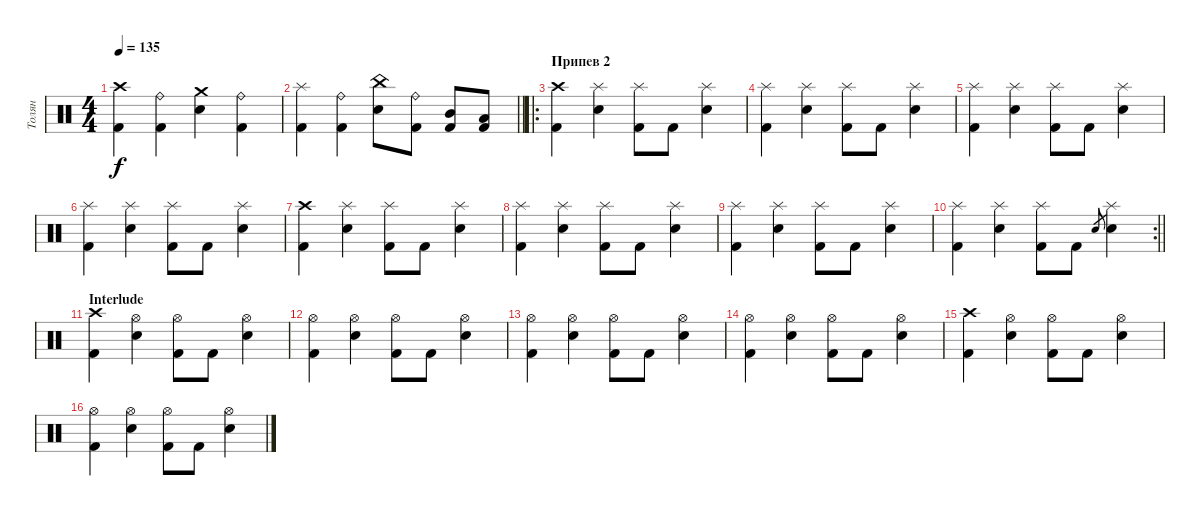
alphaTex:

\track ("Толян" "Толян") {instrument percussion}
\staff {score}
\articulation defaults
\ts (4 4)
\tempo 135
\clef neutral
\ks c
("Crash high (hit)" "Kick (hit) 2").4{dy f} ("Ride (bell)" "Kick (hit) 2").4 ("Crash medium (hit)" "Electric Snare (hit)").4 ("Ride (bell)" "Kick (hit) 2").4 |
\barLineRight lightlight
("Splash (hit)" "Kick (hit) 2").4 ("Ride (bell)" "Kick (hit) 2").4 ("China (hit)" "Electric Snare (hit)").8 ("Ride (bell)" "Kick (hit) 2").8 ("Mid Tom (hit)" "Kick (hit) 2").8 ("Low Tom (hit)" "Kick (hit) 2").8 |
\ro
\section ("" "Припев 2")
("Crash high (hit)" "Kick (hit) 2").4 ("Splash (hit)" "Electric Snare (hit)").4 ("Splash (hit)" "Kick (hit) 2").8 "Kick (hit) 2".8 ("Splash (hit)" "Electric Snare (hit)").4 |
("Splash (hit)" "Kick (hit) 2").4 ("Splash (hit)" "Electric Snare (hit)").4 ("Splash (hit)" "Kick (hit) 2").8 "Kick (hit) 2".8 ("Splash (hit)" "Electric Snare (hit)").4 |
("Splash (hit)" "Kick (hit) 2").4 ("Splash (hit)" "Electric Snare (hit)").4 ("Splash (hit)" "Kick (hit) 2").8 "Kick (hit) 2".8 ("Splash (hit)" "Electric Snare (hit)").4 |
("Splash (hit)" "Kick (hit) 2").4 ("Splash (hit)" "Electric Snare (hit)").4 ("Splash (hit)" "Kick (hit) 2").8 "Kick (hit) 2".8 ("Splash (hit)" "Electric Snare (hit)").4 |
("Crash high (hit)" "Kick (hit) 2").4 ("Splash (hit)" "Electric Snare (hit)").4 ("Splash (hit)" "Kick (hit) 2").8 "Kick (hit) 2".8 ("Splash (hit)" "Electric Snare (hit)").4 |
("Splash (hit)" "Kick (hit) 2").4 ("Splash (hit)" "Electric Snare (hit)").4 ("Splash (hit)" "Kick (hit) 2").8 "Kick (hit) 2".8 ("Splash (hit)" "Electric Snare (hit)").4 |
("Splash (hit)" "Kick (hit) 2").4 ("Splash (hit)" "Electric Snare (hit)").4 ("Splash (hit)" "Kick (hit) 2").8 "Kick (hit) 2".8 ("Splash (hit)" "Electric Snare (hit)").4 |
\rc 2
\barLineRight lightlight
("Splash (hit)" "Kick (hit) 2").4 ("Splash (hit)" "Electric Snare (hit)").4 ("Splash (hit)" "Kick (hit) 2").8 "Kick (hit) 2".8 "Electric Snare (hit)".8{gr} ("Splash (hit)" "Electric Snare (hit)").4 |
\section ("" "Interlude")
("Crash high (hit)" "Kick (hit) 2").4 ("Hi-Hat (open)" "Electric Snare (hit)").4 ("Hi-Hat (open)" "Kick (hit) 2").8 "Kick (hit) 2".8 ("Hi-Hat (open)" "Electric Snare (hit)").4 |
("Hi-Hat (open)" "Kick (hit) 2").4 ("Hi-Hat (open)" "Electric Snare (hit)").4 ("Hi-Hat (open)" "Kick (hit) 2").8 "Kick (hit) 2".8 ("Hi-Hat (open)" "Electric Snare (hit)").4 |
("Hi-Hat (open)" "Kick (hit) 2").4 ("Hi-Hat (open)" "Electric Snare (hit)").4 ("Hi-Hat (open)" "Kick (hit) 2").8 "Kick (hit) 2".8 ("Hi-Hat (open)" "Electric Snare (hit)").4 |
("Hi-Hat (open)" "Kick (hit) 2").4 ("Hi-Hat (open)" "Electric Snare (hit)").4 ("Hi-Hat (open)" "Kick (hit) 2").8 "Kick (hit) 2".8 ("Hi-Hat (open)" "Electric Snare (hit)").4 |
("Crash high (hit)" "Kick (hit) 2").4 ("Hi-Hat (open)" "Electric Snare (hit)").4 ("Hi-Hat (open)" "Kick (hit) 2").8 "Kick (hit) 2".8 ("Hi-Hat (open)" "Electric Snare (hit)").4 |
("Hi-Hat (open)" "Kick (hit) 2").4 ("Hi-Hat (open)" "Electric Snare (hit)").4 ("Hi-Hat (open)" "Kick (hit) 2").8 "Kick (hit) 2".8 ("Hi-Hat (open)" "Electric Snare (hit)").4
